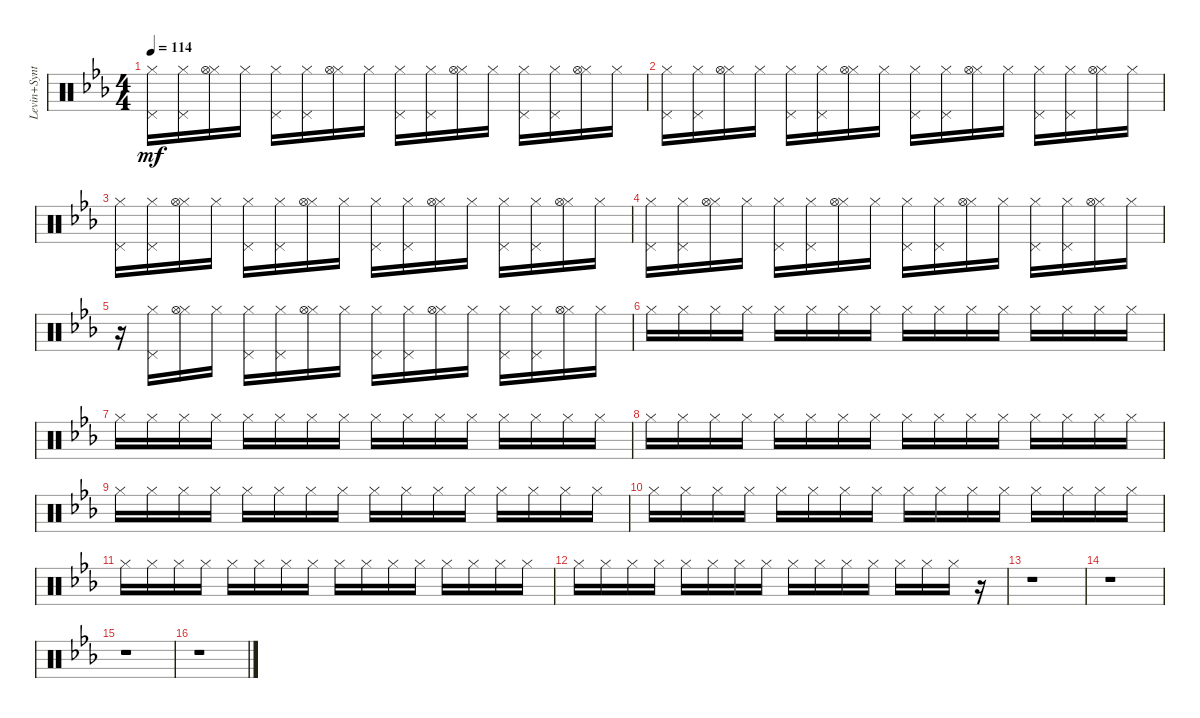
\track ("Levin+Synth" "Levin+Synt") {instrument percussion}
\staff {score}
\articulation defaults
\ts (4 4)
\tempo 114
\clef neutral
\ks eb
("Hi-Hat (closed)" "Pedal Hi-Hat (hit)").16{dy mf} ("Hi-Hat (closed)" "Pedal Hi-Hat (hit)").16 ("Hi-Hat (closed)" "Hi-Hat (open)").16 "Hi-Hat (closed)".16 ("Hi-Hat (closed)" "Pedal Hi-Hat (hit)").16 ("Hi-Hat (closed)" "Pedal Hi-Hat (hit)").16 ("Hi-Hat (closed)" "Hi-Hat (open)").16 "Hi-Hat (closed)".16 ("Hi-Hat (closed)" "Pedal Hi-Hat (hit)").16 ("Hi-Hat (closed)" "Pedal Hi-Hat (hit)").16 ("Hi-Hat (closed)" "Hi-Hat (open)").16 "Hi-Hat (closed)".16 ("Hi-Hat (closed)" "Pedal Hi-Hat (hit)").16 ("Hi-Hat (closed)" "Pedal Hi-Hat (hit)").16 ("Hi-Hat (closed)" "Hi-Hat (open)").16 "Hi-Hat (closed)".16 |
("Hi-Hat (closed)" "Pedal Hi-Hat (hit)").16 ("Hi-Hat (closed)" "Pedal Hi-Hat (hit)").16 ("Hi-Hat (closed)" "Hi-Hat (open)").16 "Hi-Hat (closed)".16 ("Hi-Hat (closed)" "Pedal Hi-Hat (hit)").16 ("Hi-Hat (closed)" "Pedal Hi-Hat (hit)").16 ("Hi-Hat (closed)" "Hi-Hat (open)").16 "Hi-Hat (closed)".16 ("Hi-Hat (closed)" "Pedal Hi-Hat (hit)").16 ("Hi-Hat (closed)" "Pedal Hi-Hat (hit)").16 ("Hi-Hat (closed)" "Hi-Hat (open)").16 "Hi-Hat (closed)".16 ("Hi-Hat (closed)" "Pedal Hi-Hat (hit)").16 ("Hi-Hat (closed)" "Pedal Hi-Hat (hit)").16 ("Hi-Hat (closed)" "Hi-Hat (open)").16 "Hi-Hat (closed)".16 |
("Hi-Hat (closed)" "Pedal Hi-Hat (hit)").16 ("Hi-Hat (closed)" "Pedal Hi-Hat (hit)").16 ("Hi-Hat (closed)" "Hi-Hat (open)").16 "Hi-Hat (closed)".16 ("Hi-Hat (closed)" "Pedal Hi-Hat (hit)").16 ("Hi-Hat (closed)" "Pedal Hi-Hat (hit)").16 ("Hi-Hat (closed)" "Hi-Hat (open)").16 "Hi-Hat (closed)".16 ("Hi-Hat (closed)" "Pedal Hi-Hat (hit)").16 ("Hi-Hat (closed)" "Pedal Hi-Hat (hit)").16 ("Hi-Hat (closed)" "Hi-Hat (open)").16 "Hi-Hat (closed)".16 ("Hi-Hat (closed)" "Pedal Hi-Hat (hit)").16 ("Hi-Hat (closed)" "Pedal Hi-Hat (hit)").16 ("Hi-Hat (closed)" "Hi-Hat (open)").16 "Hi-Hat (closed)".16 |
("Hi-Hat (closed)" "Pedal Hi-Hat (hit)").16 ("Hi-Hat (closed)" "Pedal Hi-Hat (hit)").16 ("Hi-Hat (closed)" "Hi-Hat (open)").16 "Hi-Hat (closed)".16 ("Hi-Hat (closed)" "Pedal Hi-Hat (hit)").16 ("Hi-Hat (closed)" "Pedal Hi-Hat (hit)").16 ("Hi-Hat (closed)" "Hi-Hat (open)").16 "Hi-Hat (closed)".16 ("Hi-Hat (closed)" "Pedal Hi-Hat (hit)").16 ("Hi-Hat (closed)" "Pedal Hi-Hat (hit)").16 ("Hi-Hat (closed)" "Hi-Hat (open)").16 "Hi-Hat (closed)".16 ("Hi-Hat (closed)" "Pedal Hi-Hat (hit)").16 ("Hi-Hat (closed)" "Pedal Hi-Hat (hit)").16 ("Hi-Hat (closed)" "Hi-Hat (open)").16 "Hi-Hat (closed)".16 |
r.16 ("Hi-Hat (closed)" "Pedal Hi-Hat (hit)").16 ("Hi-Hat (closed)" "Hi-Hat (open)").16 "Hi-Hat (closed)".16 ("Hi-Hat (closed)" "Pedal Hi-Hat (hit)").16 ("Hi-Hat (closed)" "Pedal Hi-Hat (hit)").16 ("Hi-Hat (closed)" "Hi-Hat (open)").16 "Hi-Hat (closed)".16 ("Hi-Hat (closed)" "Pedal Hi-Hat (hit)").16 ("Hi-Hat (closed)" "Pedal Hi-Hat (hit)").16 ("Hi-Hat (closed)" "Hi-Hat (open)").16 "Hi-Hat (closed)".16 ("Hi-Hat (closed)" "Pedal Hi-Hat (hit)").16 ("Hi-Hat (closed)" "Pedal Hi-Hat (hit)").16 ("Hi-Hat (closed)" "Hi-Hat (open)").16 "Hi-Hat (closed)".16 |
"Hi-Hat (closed)".16 "Hi-Hat (closed)".16 "Hi-Hat (closed)".16 "Hi-Hat (closed)".16 "Hi-Hat (closed)".16 "Hi-Hat (closed)".16 "Hi-Hat (closed)".16 "Hi-Hat (closed)".16 "Hi-Hat (closed)".16 "Hi-Hat (closed)".16 "Hi-Hat (closed)".16 "Hi-Hat (closed)".16 "Hi-Hat (closed)".16 "Hi-Hat (closed)".16 "Hi-Hat (closed)".16 "Hi-Hat (closed)".16 |
"Hi-Hat (closed)".16 "Hi-Hat (closed)".16 "Hi-Hat (closed)".16 "Hi-Hat (closed)".16 "Hi-Hat (closed)".16 "Hi-Hat (closed)".16 "Hi-Hat (closed)".16 "Hi-Hat (closed)".16 "Hi-Hat (closed)".16 "Hi-Hat (closed)".16 "Hi-Hat (closed)".16 "Hi-Hat (closed)".16 "Hi-Hat (closed)".16 "Hi-Hat (closed)".16 "Hi-Hat (closed)".16 "Hi-Hat (closed)".16 |
"Hi-Hat (closed)".16 "Hi-Hat (closed)".16 "Hi-Hat (closed)".16 "Hi-Hat (closed)".16 "Hi-Hat (closed)".16 "Hi-Hat (closed)".16 "Hi-Hat (closed)".16 "Hi-Hat (closed)".16 "Hi-Hat (closed)".16 "Hi-Hat (closed)".16 "Hi-Hat (closed)".16 "Hi-Hat (closed)".16 "Hi-Hat (closed)".16 "Hi-Hat (closed)".16 "Hi-Hat (closed)".16 "Hi-Hat (closed)".16 |
"Hi-Hat (closed)".16 "Hi-Hat (closed)".16 "Hi-Hat (closed)".16 "Hi-Hat (closed)".16 "Hi-Hat (closed)".16 "Hi-Hat (closed)".16 "Hi-Hat (closed)".16 "Hi-Hat (closed)".16 "Hi-Hat (closed)".16 "Hi-Hat (closed)".16 "Hi-Hat (closed)".16 "Hi-Hat (closed)".16 "Hi-Hat (closed)".16 "Hi-Hat (closed)".16 "Hi-Hat (closed)".16 "Hi-Hat (closed)".16 |
"Hi-Hat (closed)".16 "Hi-Hat (closed)".16 "Hi-Hat (closed)".16 "Hi-Hat (closed)".16 "Hi-Hat (closed)".16 "Hi-Hat (closed)".16 "Hi-Hat (closed)".16 "Hi-Hat (closed)".16 "Hi-Hat (closed)".16 "Hi-Hat (closed)".16 "Hi-Hat (closed)".16 "Hi-Hat (closed)".16 "Hi-Hat (closed)".16 "Hi-Hat (closed)".16 "Hi-Hat (closed)".16 "Hi-Hat (closed)".16 |
"Hi-Hat (closed)".16 "Hi-Hat (closed)".16 "Hi-Hat (closed)".16 "Hi-Hat (closed)".16 "Hi-Hat (closed)".16 "Hi-Hat (closed)".16 "Hi-Hat (closed)".16 "Hi-Hat (closed)".16 "Hi-Hat (closed)".16 "Hi-Hat (closed)".16 "Hi-Hat (closed)".16 "Hi-Hat (closed)".16 "Hi-Hat (closed)".16 "Hi-Hat (closed)".16 "Hi-Hat (closed)".16 "Hi-Hat (closed)".16 |
"Hi-Hat (closed)".16 "Hi-Hat (closed)".16 "Hi-Hat (closed)".16 "Hi-Hat (closed)".16 "Hi-Hat (closed)".16 "Hi-Hat (closed)".16 "Hi-Hat (closed)".16 "Hi-Hat (closed)".16 "Hi-Hat (closed)".16 "Hi-Hat (closed)".16 "Hi-Hat (closed)".16 "Hi-Hat (closed)".16 "Hi-Hat (closed)".16 "Hi-Hat (closed)".16 "Hi-Hat (closed)".16 r.16 |
r.1 |
r.1 |
r.1 |
r.1
